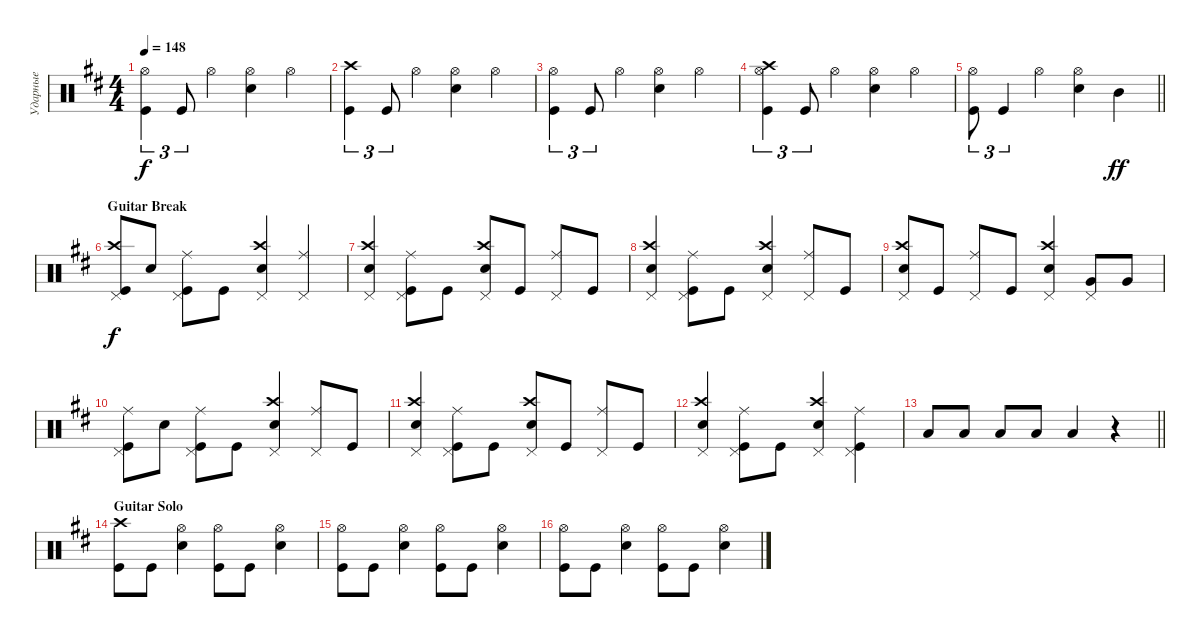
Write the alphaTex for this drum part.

\track ("Ударные" "Ударные") {instrument percussion}
\staff {score}
\articulation defaults
\ts (4 4)
\tempo 148
\clef neutral
\ks bminor
("Hi-Hat (open)" "Kick (hit)").4{tu (3 2) dy f} "Kick (hit)".8{tu (3 2)} "Hi-Hat (open)".4 ("Hi-Hat (open)" "Snare (hit) 2").4 "Hi-Hat (open)".4 |
("Kick (hit)" "Crash high (hit)").4{tu (3 2)} "Kick (hit)".8{tu (3 2)} "Hi-Hat (open)".4 ("Hi-Hat (open)" "Snare (hit) 2").4 "Hi-Hat (open)".4 |
("Hi-Hat (open)" "Kick (hit)").4{tu (3 2)} "Kick (hit)".8{tu (3 2)} "Hi-Hat (open)".4 ("Hi-Hat (open)" "Snare (hit) 2").4 "Hi-Hat (open)".4 |
("Hi-Hat (open)" "Kick (hit)" "Crash high (hit)").4{tu (3 2)} "Kick (hit)".8{tu (3 2)} "Hi-Hat (open)".4 ("Hi-Hat (open)" "Snare (hit) 2").4 "Hi-Hat (open)".4 |
\barLineRight lightlight
("Kick (hit)" "Hi-Hat (open)").8{tu (3 2)} "Kick (hit)".4{tu (3 2)} "Hi-Hat (open)".4 ("Snare (hit) 2" "Hi-Hat (open)").4 "Mid Tom (hit)".4{dy ff} |
\section ("" "Guitar Break")
("Kick (hit)" "Crash high (hit)" "Pedal Hi-Hat (hit)").8{dy f} "Snare (hit) 2".8 ("Kick (hit)" "Ride (middle)" "Pedal Hi-Hat (hit)").8 "Kick (hit)".8 ("Snare (hit) 2" "Crash high (hit)" "Pedal Hi-Hat (hit)").4 ("Ride (middle)" "Pedal Hi-Hat (hit)").4 |
("Crash high (hit)" "Snare (hit) 2" "Pedal Hi-Hat (hit)").4 ("Kick (hit)" "Ride (middle)" "Pedal Hi-Hat (hit)").8 "Kick (hit)".8 ("Snare (hit) 2" "Crash high (hit)" "Pedal Hi-Hat (hit)").8 "Kick (hit)".8 ("Pedal Hi-Hat (hit)" "Ride (middle)").8 "Kick (hit)".8 |
("Snare (hit) 2" "Crash high (hit)" "Pedal Hi-Hat (hit)").4 ("Kick (hit)" "Ride (middle)" "Pedal Hi-Hat (hit)").8 "Kick (hit)".8 ("Snare (hit) 2" "Crash high (hit)" "Pedal Hi-Hat (hit)").4 ("Ride (middle)" "Pedal Hi-Hat (hit)").8 "Kick (hit)".8 |
("Snare (hit) 2" "Crash high (hit)" "Pedal Hi-Hat (hit)").8 "Kick (hit)".8 ("Ride (middle)" "Pedal Hi-Hat (hit)").8 "Kick (hit)".8 ("Snare (hit) 2" "Crash high (hit)" "Pedal Hi-Hat (hit)").4 ("Very Low Tom (hit)" "Pedal Hi-Hat (hit)").8 "Very Low Tom (hit)".8 |
("Kick (hit)" "Ride (middle)" "Pedal Hi-Hat (hit)").8 "Snare (hit) 2".8 ("Kick (hit)" "Ride (middle)" "Pedal Hi-Hat (hit)").8 "Kick (hit)".8 ("Snare (hit) 2" "Crash high (hit)" "Pedal Hi-Hat (hit)").4 ("Ride (middle)" "Pedal Hi-Hat (hit)").8 "Kick (hit)".8 |
("Crash high (hit)" "Snare (hit) 2" "Pedal Hi-Hat (hit)").4 ("Kick (hit)" "Ride (middle)" "Pedal Hi-Hat (hit)").8 "Kick (hit)".8 ("Snare (hit) 2" "Crash high (hit)" "Pedal Hi-Hat (hit)").8 "Kick (hit)".8 ("Ride (middle)" "Pedal Hi-Hat (hit)").8 "Kick (hit)".8 |
("Snare (hit) 2" "Crash high (hit)" "Pedal Hi-Hat (hit)").4 ("Kick (hit)" "Ride (middle)" "Pedal Hi-Hat (hit)").8 "Kick (hit)".8 ("Snare (hit) 2" "Crash high (hit)" "Pedal Hi-Hat (hit)").4 ("Ride (middle)" "Pedal Hi-Hat (hit)" "Kick (hit)").4 |
\barLineRight lightlight "Low Tom (hit)".8 "Low Tom (hit)".8 "Low Tom (hit)".8 "Low Tom (hit)".8 "Low Tom (hit)".4
r.4 |
\section ("" "Guitar Solo")
("Kick (hit)" "Crash high (hit)").8 "Kick (hit)".8 ("Snare (hit) 2" "Hi-Hat (open)").4 ("Kick (hit)" "Hi-Hat (open)").8 "Kick (hit)".8 ("Snare (hit) 2" "Hi-Hat (open)").4 |
("Kick (hit)" "Hi-Hat (open)").8 "Kick (hit)".8 ("Snare (hit) 2" "Hi-Hat (open)").4 ("Kick (hit)" "Hi-Hat (open)").8 "Kick (hit)".8 ("Snare (hit) 2" "Hi-Hat (open)").4 |
("Kick (hit)" "Hi-Hat (open)").8 "Kick (hit)".8 ("Snare (hit) 2" "Hi-Hat (open)").4 ("Kick (hit)" "Hi-Hat (open)").8 "Kick (hit)".8 ("Snare (hit) 2" "Hi-Hat (open)").4
